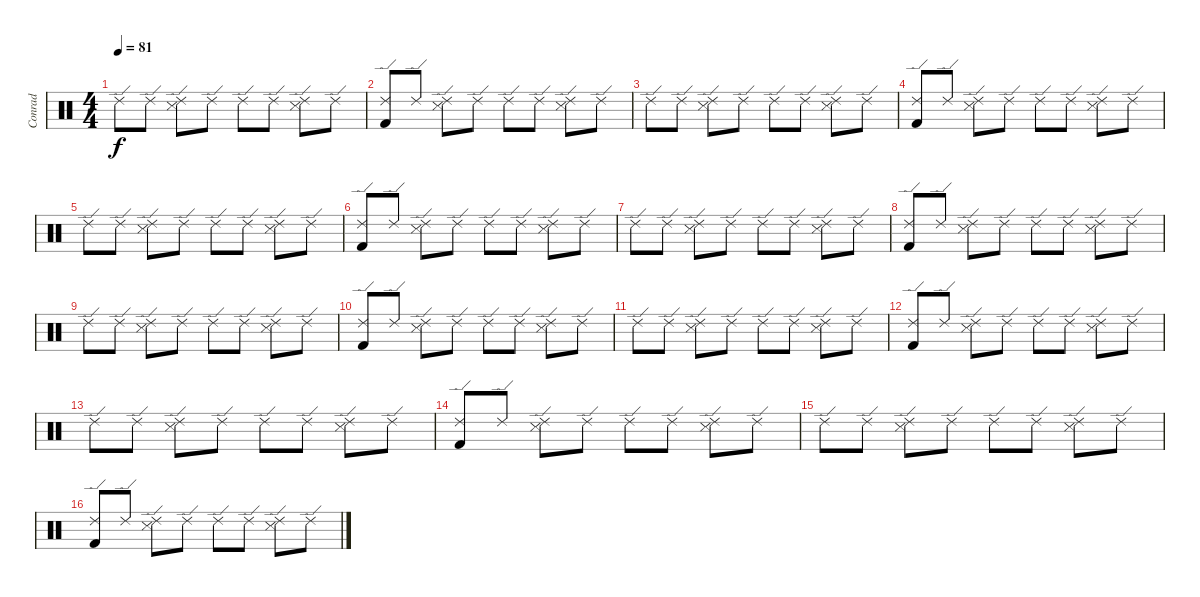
\track ("Conrad" "Conrad") {instrument percussion}
\staff {score}
\articulation defaults
\ts (4 4)
\tempo 81
\clef neutral
\ks c "Ride (edge) 2".8{dy f} "Ride (edge) 2".8
("Ride (edge) 2" "Snare (side stick) 3").8 "Ride (edge) 2".8 "Ride (edge) 2".8 "Ride (edge) 2".8 ("Ride (edge) 2" "Snare (side stick) 3").8 "Ride (edge) 2".8 |
("Ride (edge) 2" "Kick (hit) 2").8 "Ride (edge) 2".8 ("Ride (edge) 2" "Snare (side stick) 3").8 "Ride (edge) 2".8 "Ride (edge) 2".8 "Ride (edge) 2".8 ("Ride (edge) 2" "Snare (side stick) 3").8 "Ride (edge) 2".8 |
"Ride (edge) 2".8 "Ride (edge) 2".8 ("Ride (edge) 2" "Snare (side stick) 3").8 "Ride (edge) 2".8 "Ride (edge) 2".8 "Ride (edge) 2".8 ("Ride (edge) 2" "Snare (side stick) 3").8 "Ride (edge) 2".8 |
("Ride (edge) 2" "Kick (hit) 2").8 "Ride (edge) 2".8 ("Ride (edge) 2" "Snare (side stick) 3").8 "Ride (edge) 2".8 "Ride (edge) 2".8 "Ride (edge) 2".8 ("Ride (edge) 2" "Snare (side stick) 3").8 "Ride (edge) 2".8 |
"Ride (edge) 2".8 "Ride (edge) 2".8 ("Ride (edge) 2" "Snare (side stick) 3").8 "Ride (edge) 2".8 "Ride (edge) 2".8 "Ride (edge) 2".8 ("Ride (edge) 2" "Snare (side stick) 3").8 "Ride (edge) 2".8 |
("Ride (edge) 2" "Kick (hit) 2").8 "Ride (edge) 2".8 ("Ride (edge) 2" "Snare (side stick) 3").8 "Ride (edge) 2".8 "Ride (edge) 2".8 "Ride (edge) 2".8 ("Ride (edge) 2" "Snare (side stick) 3").8 "Ride (edge) 2".8 |
"Ride (edge) 2".8 "Ride (edge) 2".8 ("Ride (edge) 2" "Snare (side stick) 3").8 "Ride (edge) 2".8 "Ride (edge) 2".8 "Ride (edge) 2".8 ("Ride (edge) 2" "Snare (side stick) 3").8 "Ride (edge) 2".8 |
("Ride (edge) 2" "Kick (hit) 2").8 "Ride (edge) 2".8 ("Ride (edge) 2" "Snare (side stick) 3").8 "Ride (edge) 2".8 "Ride (edge) 2".8 "Ride (edge) 2".8 ("Ride (edge) 2" "Snare (side stick) 3").8 "Ride (edge) 2".8 |
"Ride (edge) 2".8 "Ride (edge) 2".8 ("Ride (edge) 2" "Snare (side stick) 3").8 "Ride (edge) 2".8 "Ride (edge) 2".8 "Ride (edge) 2".8 ("Ride (edge) 2" "Snare (side stick) 3").8 "Ride (edge) 2".8 |
("Ride (edge) 2" "Kick (hit) 2").8 "Ride (edge) 2".8 ("Ride (edge) 2" "Snare (side stick) 3").8 "Ride (edge) 2".8 "Ride (edge) 2".8 "Ride (edge) 2".8 ("Ride (edge) 2" "Snare (side stick) 3").8 "Ride (edge) 2".8 |
"Ride (edge) 2".8 "Ride (edge) 2".8 ("Ride (edge) 2" "Snare (side stick) 3").8 "Ride (edge) 2".8 "Ride (edge) 2".8 "Ride (edge) 2".8 ("Ride (edge) 2" "Snare (side stick) 3").8 "Ride (edge) 2".8 |
("Ride (edge) 2" "Kick (hit) 2").8 "Ride (edge) 2".8 ("Ride (edge) 2" "Snare (side stick) 3").8 "Ride (edge) 2".8 "Ride (edge) 2".8 "Ride (edge) 2".8 ("Ride (edge) 2" "Snare (side stick) 3").8 "Ride (edge) 2".8 |
"Ride (edge) 2".8 "Ride (edge) 2".8 ("Ride (edge) 2" "Snare (side stick) 3").8 "Ride (edge) 2".8 "Ride (edge) 2".8 "Ride (edge) 2".8 ("Ride (edge) 2" "Snare (side stick) 3").8 "Ride (edge) 2".8 |
("Ride (edge) 2" "Kick (hit) 2").8 "Ride (edge) 2".8 ("Ride (edge) 2" "Snare (side stick) 3").8 "Ride (edge) 2".8 "Ride (edge) 2".8 "Ride (edge) 2".8 ("Ride (edge) 2" "Snare (side stick) 3").8 "Ride (edge) 2".8 |
"Ride (edge) 2".8 "Ride (edge) 2".8 ("Ride (edge) 2" "Snare (side stick) 3").8 "Ride (edge) 2".8 "Ride (edge) 2".8 "Ride (edge) 2".8 ("Ride (edge) 2" "Snare (side stick) 3").8 "Ride (edge) 2".8 |
("Ride (edge) 2" "Kick (hit) 2").8 "Ride (edge) 2".8 ("Ride (edge) 2" "Snare (side stick) 3").8 "Ride (edge) 2".8 "Ride (edge) 2".8 "Ride (edge) 2".8 ("Ride (edge) 2" "Snare (side stick) 3").8 "Ride (edge) 2".8
